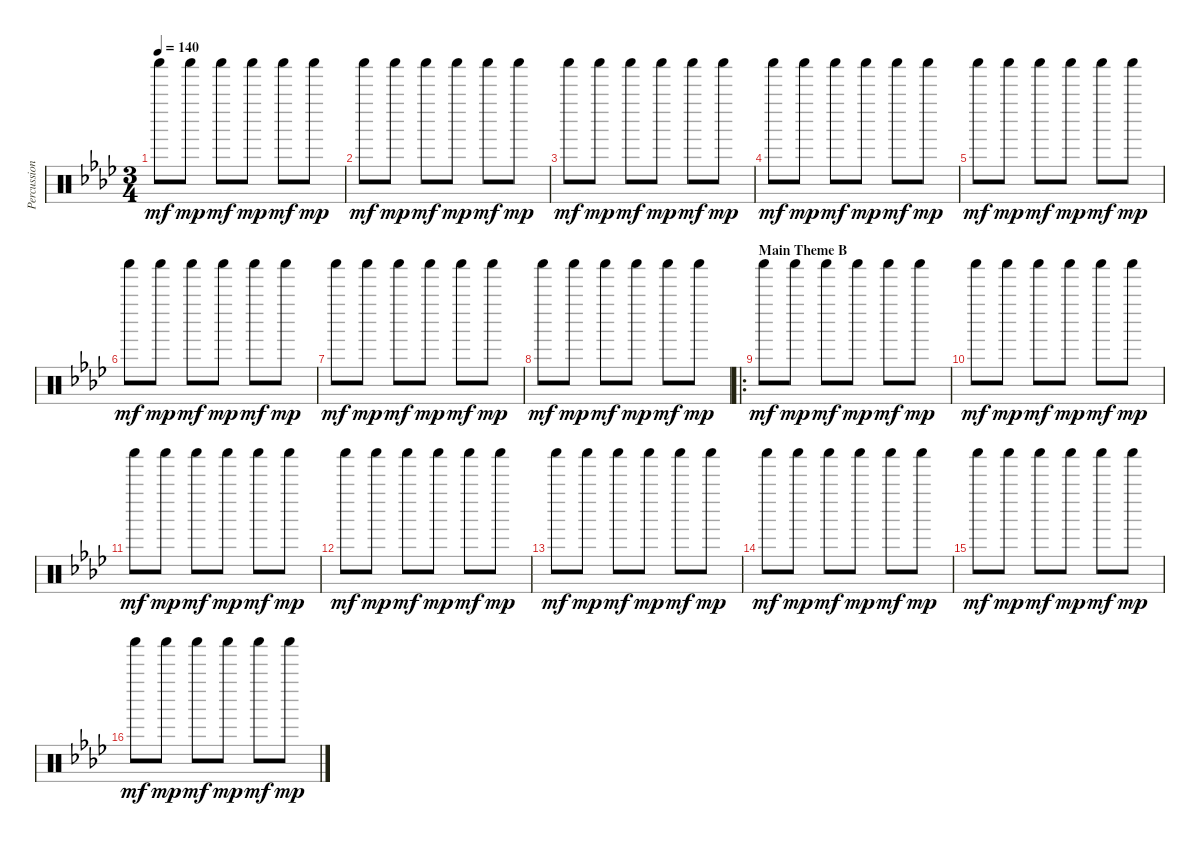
\track ("Percussion" "Percussion") {instrument percussion}
\staff {score}
\articulation defaults
\ts (3 4)
\tempo 140
\clef neutral
\ks fminor "Shaker (hit)".8{dy mf} "Shaker (hit)".8{dy mp} "Shaker (hit)".8{dy mf} "Shaker (hit)".8{dy mp} "Shaker (hit)".8{dy mf} "Shaker (hit)".8{dy mp}
|
"Shaker (hit)".8{dy mf} "Shaker (hit)".8{dy mp} "Shaker (hit)".8{dy mf} "Shaker (hit)".8{dy mp} "Shaker (hit)".8{dy mf} "Shaker (hit)".8{dy mp} |
"Shaker (hit)".8{dy mf} "Shaker (hit)".8{dy mp} "Shaker (hit)".8{dy mf} "Shaker (hit)".8{dy mp} "Shaker (hit)".8{dy mf} "Shaker (hit)".8{dy mp} |
"Shaker (hit)".8{dy mf} "Shaker (hit)".8{dy mp} "Shaker (hit)".8{dy mf} "Shaker (hit)".8{dy mp} "Shaker (hit)".8{dy mf} "Shaker (hit)".8{dy mp} |
"Shaker (hit)".8{dy mf} "Shaker (hit)".8{dy mp} "Shaker (hit)".8{dy mf} "Shaker (hit)".8{dy mp} "Shaker (hit)".8{dy mf} "Shaker (hit)".8{dy mp} |
"Shaker (hit)".8{dy mf} "Shaker (hit)".8{dy mp} "Shaker (hit)".8{dy mf} "Shaker (hit)".8{dy mp} "Shaker (hit)".8{dy mf} "Shaker (hit)".8{dy mp} |
"Shaker (hit)".8{dy mf} "Shaker (hit)".8{dy mp} "Shaker (hit)".8{dy mf} "Shaker (hit)".8{dy mp} "Shaker (hit)".8{dy mf} "Shaker (hit)".8{dy mp} |
"Shaker (hit)".8{dy mf} "Shaker (hit)".8{dy mp} "Shaker (hit)".8{dy mf} "Shaker (hit)".8{dy mp} "Shaker (hit)".8{dy mf} "Shaker (hit)".8{dy mp} |
\ro
\section ("" "Main Theme B")
"Shaker (hit)".8{dy mf} "Shaker (hit)".8{dy mp} "Shaker (hit)".8{dy mf} "Shaker (hit)".8{dy mp} "Shaker (hit)".8{dy mf} "Shaker (hit)".8{dy mp} |
"Shaker (hit)".8{dy mf} "Shaker (hit)".8{dy mp} "Shaker (hit)".8{dy mf} "Shaker (hit)".8{dy mp} "Shaker (hit)".8{dy mf} "Shaker (hit)".8{dy mp} |
"Shaker (hit)".8{dy mf} "Shaker (hit)".8{dy mp} "Shaker (hit)".8{dy mf} "Shaker (hit)".8{dy mp} "Shaker (hit)".8{dy mf} "Shaker (hit)".8{dy mp} |
"Shaker (hit)".8{dy mf} "Shaker (hit)".8{dy mp} "Shaker (hit)".8{dy mf} "Shaker (hit)".8{dy mp} "Shaker (hit)".8{dy mf} "Shaker (hit)".8{dy mp} |
"Shaker (hit)".8{dy mf} "Shaker (hit)".8{dy mp} "Shaker (hit)".8{dy mf} "Shaker (hit)".8{dy mp} "Shaker (hit)".8{dy mf} "Shaker (hit)".8{dy mp} |
"Shaker (hit)".8{dy mf} "Shaker (hit)".8{dy mp} "Shaker (hit)".8{dy mf} "Shaker (hit)".8{dy mp} "Shaker (hit)".8{dy mf} "Shaker (hit)".8{dy mp} |
"Shaker (hit)".8{dy mf} "Shaker (hit)".8{dy mp} "Shaker (hit)".8{dy mf} "Shaker (hit)".8{dy mp} "Shaker (hit)".8{dy mf} "Shaker (hit)".8{dy mp} |
"Shaker (hit)".8{dy mf} "Shaker (hit)".8{dy mp} "Shaker (hit)".8{dy mf} "Shaker (hit)".8{dy mp} "Shaker (hit)".8{dy mf} "Shaker (hit)".8{dy mp}
